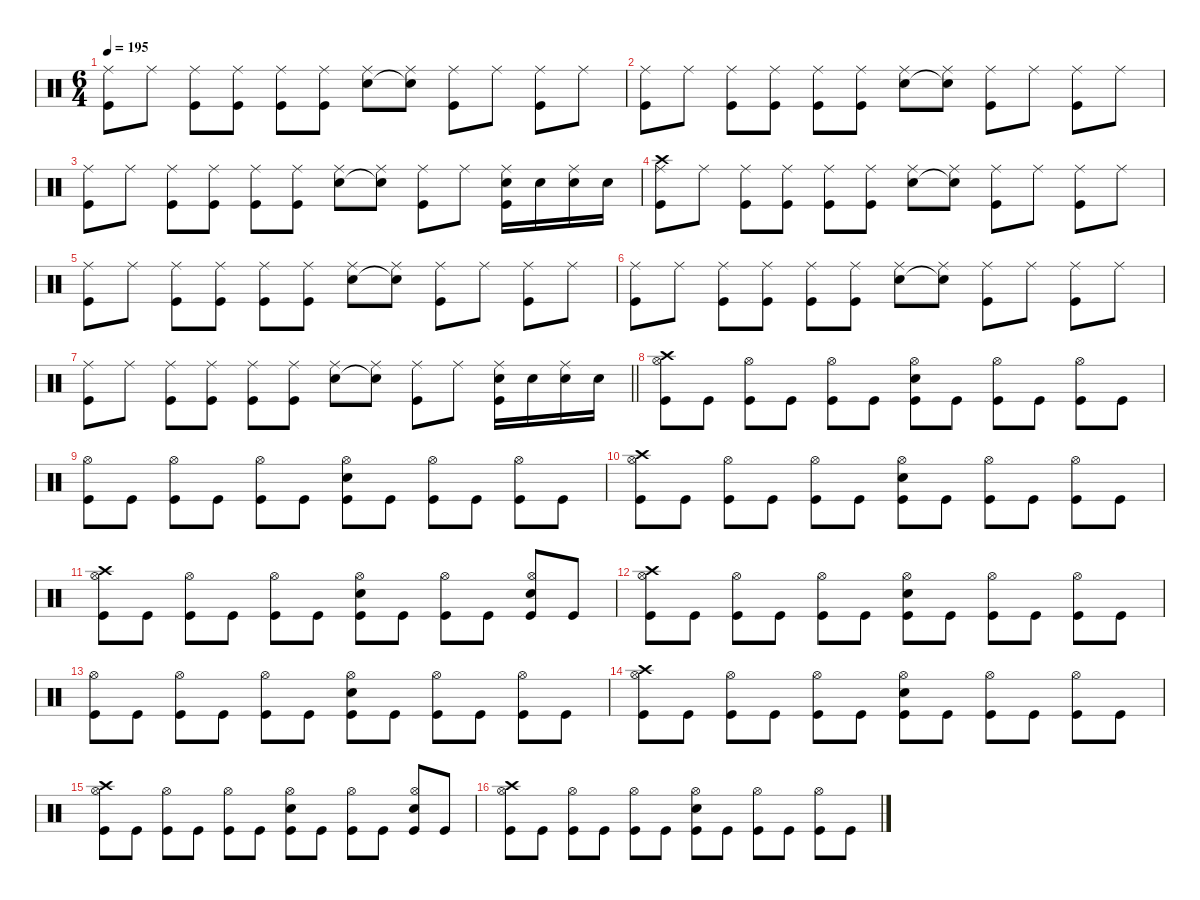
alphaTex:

\defaultSystemsLayout 4
\hideDynamics
\bracketExtendMode nobrackets
\singleTrackTrackNamePolicy hidden
\multiTrackTrackNamePolicy hidden
\firstSystemTrackNameMode fullname
\firstSystemTrackNameOrientation horizontal
\otherSystemsTrackNameOrientation horizontal
\track ("Percussion" "drm.") {defaultSystemsLayout 4 instrument percussion}
\staff {score}
\articulation defaults
\ts (6 4)
\tempo 195
\clef neutral
\ks c
("Ride (middle)" "Kick (hit)").8{dy f beam Down} "Ride (middle)".8{beam Down} ("Ride (middle)" "Kick (hit)").8{beam Down} ("Ride (middle)" "Kick (hit)").8{beam Down} ("Ride (middle)" "Kick (hit)").8{beam Down} ("Ride (middle)" "Kick (hit)").8{beam Down} ("Ride (middle)" "Snare (hit) 2").8{beam Down} ("Ride (middle)" "Snare (hit) 2"{t}).8{beam Down} ("Ride (middle)" "Kick (hit)").8{beam Down} "Ride (middle)".8{beam Down} ("Ride (middle)" "Kick (hit)").8{beam Down} "Ride (middle)".8{beam Down} |
("Ride (middle)" "Kick (hit)").8{beam Down} "Ride (middle)".8{beam Down} ("Ride (middle)" "Kick (hit)").8{beam Down} ("Ride (middle)" "Kick (hit)").8{beam Down} ("Ride (middle)" "Kick (hit)").8{beam Down} ("Ride (middle)" "Kick (hit)").8{beam Down} ("Ride (middle)" "Snare (hit) 2").8{beam Down} ("Ride (middle)" "Snare (hit) 2"{t}).8{beam Down} ("Ride (middle)" "Kick (hit)").8{beam Down} "Ride (middle)".8{beam Down} ("Ride (middle)" "Kick (hit)").8{beam Down} "Ride (middle)".8{beam Down} |
("Ride (middle)" "Kick (hit)").8{beam Down} "Ride (middle)".8{beam Down} ("Ride (middle)" "Kick (hit)").8{beam Down} ("Ride (middle)" "Kick (hit)").8{beam Down} ("Ride (middle)" "Kick (hit)").8{beam Down} ("Ride (middle)" "Kick (hit)").8{beam Down} ("Ride (middle)" "Snare (hit) 2").8{beam Down} ("Ride (middle)" "Snare (hit) 2"{t}).8{beam Down} ("Ride (middle)" "Kick (hit)").8{beam Down} "Ride (middle)".8{beam Down} ("Ride (middle)" "Snare (hit) 2" "Kick (hit)").16{beam Down} "Snare (hit) 2".16{beam Down} ("Ride (middle)" "Snare (hit) 2").16{beam Down} "Snare (hit) 2".16{beam Down} |
("Crash high (hit)" "Ride (middle)" "Kick (hit)").8{beam Down} "Ride (middle)".8{beam Down} ("Ride (middle)" "Kick (hit)").8{beam Down} ("Ride (middle)" "Kick (hit)").8{beam Down} ("Ride (middle)" "Kick (hit)").8{beam Down} ("Ride (middle)" "Kick (hit)").8{beam Down} ("Ride (middle)" "Snare (hit) 2").8{beam Down} ("Ride (middle)" "Snare (hit) 2"{t}).8{beam Down} ("Ride (middle)" "Kick (hit)").8{beam Down} "Ride (middle)".8{beam Down} ("Ride (middle)" "Kick (hit)").8{beam Down} "Ride (middle)".8{beam Down} |
("Ride (middle)" "Kick (hit)").8{beam Down} "Ride (middle)".8{beam Down} ("Ride (middle)" "Kick (hit)").8{beam Down} ("Ride (middle)" "Kick (hit)").8{beam Down} ("Ride (middle)" "Kick (hit)").8{beam Down} ("Ride (middle)" "Kick (hit)").8{beam Down} ("Ride (middle)" "Snare (hit) 2").8{beam Down} ("Ride (middle)" "Snare (hit) 2"{t}).8{beam Down} ("Ride (middle)" "Kick (hit)").8{beam Down} "Ride (middle)".8{beam Down} ("Ride (middle)" "Kick (hit)").8{beam Down} "Ride (middle)".8{beam Down} |
("Ride (middle)" "Kick (hit)").8{beam Down} "Ride (middle)".8{beam Down} ("Ride (middle)" "Kick (hit)").8{beam Down} ("Ride (middle)" "Kick (hit)").8{beam Down} ("Ride (middle)" "Kick (hit)").8{beam Down} ("Ride (middle)" "Kick (hit)").8{beam Down} ("Ride (middle)" "Snare (hit) 2").8{beam Down} ("Ride (middle)" "Snare (hit) 2"{t}).8{beam Down} ("Ride (middle)" "Kick (hit)").8{beam Down} "Ride (middle)".8{beam Down} ("Ride (middle)" "Kick (hit)").8{beam Down} "Ride (middle)".8{beam Down} |
\barLineRight lightlight
("Ride (middle)" "Kick (hit)").8{beam Down} "Ride (middle)".8{beam Down} ("Ride (middle)" "Kick (hit)").8{beam Down} ("Ride (middle)" "Kick (hit)").8{beam Down} ("Ride (middle)" "Kick (hit)").8{beam Down} ("Ride (middle)" "Kick (hit)").8{beam Down} ("Ride (middle)" "Snare (hit) 2").8{beam Down} ("Ride (middle)" "Snare (hit) 2"{t}).8{beam Down} ("Ride (middle)" "Kick (hit)").8{beam Down} "Ride (middle)".8{beam Down} ("Ride (middle)" "Snare (hit) 2" "Kick (hit)").16{beam Down} "Snare (hit) 2".16{beam Down} ("Ride (middle)" "Snare (hit) 2").16{beam Down} "Snare (hit) 2".16{beam Down} |
("Crash high (hit)" "Hi-Hat (open)" "Kick (hit)").8{beam Down} "Kick (hit)".8{beam Down} ("Hi-Hat (open)" "Kick (hit)").8{beam Down} "Kick (hit)".8{beam Down} ("Hi-Hat (open)" "Kick (hit)").8{beam Down} "Kick (hit)".8{beam Down} ("Snare (hit) 2" "Hi-Hat (open)" "Kick (hit)").8{beam Down} "Kick (hit)".8{beam Down} ("Hi-Hat (open)" "Kick (hit)").8{beam Down} "Kick (hit)".8{beam Down} ("Hi-Hat (open)" "Kick (hit)").8{beam Down} "Kick (hit)".8{beam Down} |
("Hi-Hat (open)" "Kick (hit)").8{beam Down} "Kick (hit)".8{beam Down} ("Hi-Hat (open)" "Kick (hit)").8{beam Down} "Kick (hit)".8{beam Down} ("Hi-Hat (open)" "Kick (hit)").8{beam Down} "Kick (hit)".8{beam Down} ("Snare (hit) 2" "Hi-Hat (open)" "Kick (hit)").8{beam Down} "Kick (hit)".8{beam Down} ("Hi-Hat (open)" "Kick (hit)").8{beam Down} "Kick (hit)".8{beam Down} ("Hi-Hat (open)" "Kick (hit)").8{beam Down} "Kick (hit)".8{beam Down} |
("Crash high (hit)" "Hi-Hat (open)" "Kick (hit)").8{beam Down} "Kick (hit)".8{beam Down} ("Hi-Hat (open)" "Kick (hit)").8{beam Down} "Kick (hit)".8{beam Down} ("Hi-Hat (open)" "Kick (hit)").8{beam Down} "Kick (hit)".8{beam Down} ("Snare (hit) 2" "Hi-Hat (open)" "Kick (hit)").8{beam Down} "Kick (hit)".8{beam Down} ("Hi-Hat (open)" "Kick (hit)").8{beam Down} "Kick (hit)".8{beam Down} ("Hi-Hat (open)" "Kick (hit)").8{beam Down} "Kick (hit)".8{beam Down} |
("Crash high (hit)" "Hi-Hat (open)" "Kick (hit)").8{beam Down} "Kick (hit)".8{beam Down} ("Hi-Hat (open)" "Kick (hit)").8{beam Down} "Kick (hit)".8{beam Down} ("Hi-Hat (open)" "Kick (hit)").8{beam Down} "Kick (hit)".8{beam Down} ("Snare (hit) 2" "Hi-Hat (open)" "Kick (hit)").8{beam Down} "Kick (hit)".8{beam Down} ("Hi-Hat (open)" "Kick (hit)").8{beam Down} "Kick (hit)".8{beam Up} ("Snare (hit) 2" "Hi-Hat (open)" "Kick (hit)").8{beam Up} "Kick (hit)".8{beam Up} |
("Crash high (hit)" "Hi-Hat (open)" "Kick (hit)").8{beam Down} "Kick (hit)".8{beam Down} ("Hi-Hat (open)" "Kick (hit)").8{beam Down} "Kick (hit)".8{beam Down} ("Hi-Hat (open)" "Kick (hit)").8{beam Down} "Kick (hit)".8{beam Down} ("Snare (hit) 2" "Hi-Hat (open)" "Kick (hit)").8{beam Down} "Kick (hit)".8{beam Down} ("Hi-Hat (open)" "Kick (hit)").8{beam Down} "Kick (hit)".8{beam Down} ("Hi-Hat (open)" "Kick (hit)").8{beam Down} "Kick (hit)".8{beam Down} |
("Hi-Hat (open)" "Kick (hit)").8{beam Down} "Kick (hit)".8{beam Down} ("Hi-Hat (open)" "Kick (hit)").8{beam Down} "Kick (hit)".8{beam Down} ("Hi-Hat (open)" "Kick (hit)").8{beam Down} "Kick (hit)".8{beam Down} ("Snare (hit) 2" "Hi-Hat (open)" "Kick (hit)").8{beam Down} "Kick (hit)".8{beam Down} ("Hi-Hat (open)" "Kick (hit)").8{beam Down} "Kick (hit)".8{beam Down} ("Hi-Hat (open)" "Kick (hit)").8{beam Down} "Kick (hit)".8{beam Down} |
("Crash high (hit)" "Hi-Hat (open)" "Kick (hit)").8{beam Down} "Kick (hit)".8{beam Down} ("Hi-Hat (open)" "Kick (hit)").8{beam Down} "Kick (hit)".8{beam Down} ("Hi-Hat (open)" "Kick (hit)").8{beam Down} "Kick (hit)".8{beam Down} ("Snare (hit) 2" "Hi-Hat (open)" "Kick (hit)").8{beam Down} "Kick (hit)".8{beam Down} ("Hi-Hat (open)" "Kick (hit)").8{beam Down} "Kick (hit)".8{beam Down} ("Hi-Hat (open)" "Kick (hit)").8{beam Down} "Kick (hit)".8{beam Down} |
("Crash high (hit)" "Hi-Hat (open)" "Kick (hit)").8{beam Down} "Kick (hit)".8{beam Down} ("Hi-Hat (open)" "Kick (hit)").8{beam Down} "Kick (hit)".8{beam Down} ("Hi-Hat (open)" "Kick (hit)").8{beam Down} "Kick (hit)".8{beam Down} ("Snare (hit) 2" "Hi-Hat (open)" "Kick (hit)").8{beam Down} "Kick (hit)".8{beam Down} ("Hi-Hat (open)" "Kick (hit)").8{beam Down} "Kick (hit)".8{beam Up} ("Snare (hit) 2" "Hi-Hat (open)" "Kick (hit)").8{beam Up} "Kick (hit)".8{beam Up} |
("Crash high (hit)" "Hi-Hat (open)" "Kick (hit)").8{beam Down} "Kick (hit)".8{beam Down} ("Hi-Hat (open)" "Kick (hit)").8{beam Down} "Kick (hit)".8{beam Down} ("Hi-Hat (open)" "Kick (hit)").8{beam Down} "Kick (hit)".8{beam Down} ("Snare (hit) 2" "Hi-Hat (open)" "Kick (hit)").8{beam Down} "Kick (hit)".8{beam Down} ("Hi-Hat (open)" "Kick (hit)").8{beam Down} "Kick (hit)".8{beam Down} ("Hi-Hat (open)" "Kick (hit)").8{beam Down} "Kick (hit)".8{beam Down}
